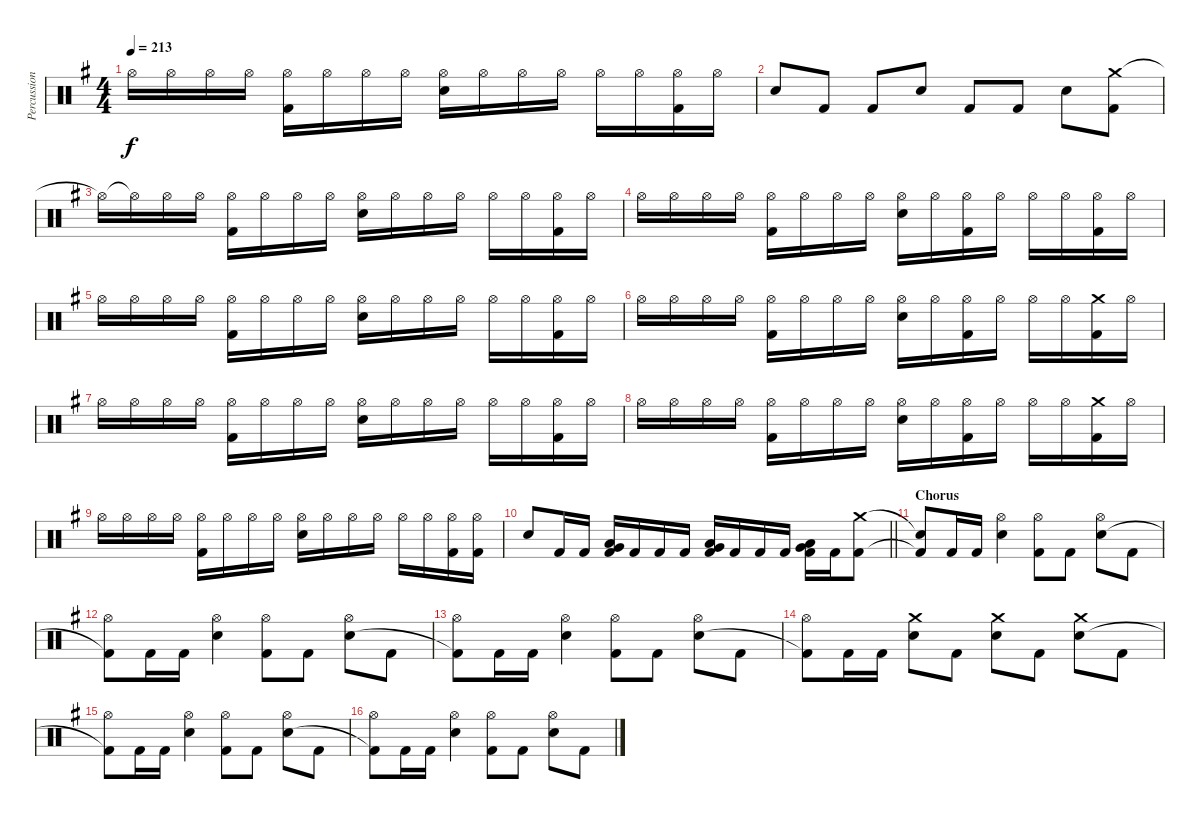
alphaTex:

\track ("Percussion" "Percussion") {instrument percussion}
\staff {score}
\articulation defaults
\ts (4 4)
\tempo 213
\clef neutral
\ks eminor "Hi-Hat (open)".16{dy f} "Hi-Hat (open)".16 "Hi-Hat (open)".16 "Hi-Hat (open)".16
("Hi-Hat (open)" "Kick (hit) 2").16 "Hi-Hat (open)".16 "Hi-Hat (open)".16 "Hi-Hat (open)".16 ("Hi-Hat (open)" "Snare (hit) 2").16 "Hi-Hat (open)".16 "Hi-Hat (open)".16 "Hi-Hat (open)".16 "Hi-Hat (open)".16 "Hi-Hat (open)".16 ("Hi-Hat (open)" "Kick (hit) 2").16 "Hi-Hat (open)".16 |
"Snare (hit) 2".8 "Kick (hit) 2".8 "Kick (hit) 2".8 "Snare (hit) 2".8 "Kick (hit) 2".8 "Kick (hit) 2".8 "Snare (hit) 2".8 ("Crash medium (hit)" "Kick (hit) 2").8 |
"Hi-Hat (open)"{t}.16 "Hi-Hat (open)"{t}.16 "Hi-Hat (open)".16 "Hi-Hat (open)".16 ("Hi-Hat (open)" "Kick (hit) 2").16 "Hi-Hat (open)".16 "Hi-Hat (open)".16 "Hi-Hat (open)".16 ("Hi-Hat (open)" "Snare (hit) 2").16 "Hi-Hat (open)".16 "Hi-Hat (open)".16 "Hi-Hat (open)".16 "Hi-Hat (open)".16 "Hi-Hat (open)".16 ("Hi-Hat (open)" "Kick (hit) 2").16 "Hi-Hat (open)".16 |
"Hi-Hat (open)".16 "Hi-Hat (open)".16 "Hi-Hat (open)".16 "Hi-Hat (open)".16 ("Hi-Hat (open)" "Kick (hit) 2").16 "Hi-Hat (open)".16 "Hi-Hat (open)".16 "Hi-Hat (open)".16 ("Hi-Hat (open)" "Snare (hit) 2").16 "Hi-Hat (open)".16 ("Hi-Hat (open)" "Kick (hit) 2").16 "Hi-Hat (open)".16 "Hi-Hat (open)".16 "Hi-Hat (open)".16 ("Hi-Hat (open)" "Kick (hit) 2").16 "Hi-Hat (open)".16 |
"Hi-Hat (open)".16 "Hi-Hat (open)".16 "Hi-Hat (open)".16 "Hi-Hat (open)".16 ("Hi-Hat (open)" "Kick (hit) 2").16 "Hi-Hat (open)".16 "Hi-Hat (open)".16 "Hi-Hat (open)".16 ("Hi-Hat (open)" "Snare (hit) 2").16 "Hi-Hat (open)".16 "Hi-Hat (open)".16 "Hi-Hat (open)".16 "Hi-Hat (open)".16 "Hi-Hat (open)".16 ("Hi-Hat (open)" "Kick (hit) 2").16 "Hi-Hat (open)".16 |
"Hi-Hat (open)".16 "Hi-Hat (open)".16 "Hi-Hat (open)".16 "Hi-Hat (open)".16 ("Hi-Hat (open)" "Kick (hit) 2").16 "Hi-Hat (open)".16 "Hi-Hat (open)".16 "Hi-Hat (open)".16 ("Hi-Hat (open)" "Snare (hit) 2").16 "Hi-Hat (open)".16 ("Hi-Hat (open)" "Kick (hit) 2").16 "Hi-Hat (open)".16 "Hi-Hat (open)".16 "Hi-Hat (open)".16 ("Crash medium (hit)" "Kick (hit) 2").16 "Hi-Hat (open)".16 |
"Hi-Hat (open)".16 "Hi-Hat (open)".16 "Hi-Hat (open)".16 "Hi-Hat (open)".16 ("Hi-Hat (open)" "Kick (hit) 2").16 "Hi-Hat (open)".16 "Hi-Hat (open)".16 "Hi-Hat (open)".16 ("Hi-Hat (open)" "Snare (hit) 2").16 "Hi-Hat (open)".16 "Hi-Hat (open)".16 "Hi-Hat (open)".16 "Hi-Hat (open)".16 "Hi-Hat (open)".16 ("Hi-Hat (open)" "Kick (hit) 2").16 "Hi-Hat (open)".16 |
"Hi-Hat (open)".16 "Hi-Hat (open)".16 "Hi-Hat (open)".16 "Hi-Hat (open)".16 ("Hi-Hat (open)" "Kick (hit) 2").16 "Hi-Hat (open)".16 "Hi-Hat (open)".16 "Hi-Hat (open)".16 ("Hi-Hat (open)" "Snare (hit) 2").16 "Hi-Hat (open)".16 ("Hi-Hat (open)" "Kick (hit) 2").16 "Hi-Hat (open)".16 "Hi-Hat (open)".16 "Hi-Hat (open)".16 ("Crash medium (hit)" "Kick (hit) 2").16 "Hi-Hat (open)".16 |
"Hi-Hat (open)".16 "Hi-Hat (open)".16 "Hi-Hat (open)".16 "Hi-Hat (open)".16 ("Hi-Hat (open)" "Kick (hit) 2").16 "Hi-Hat (open)".16 "Hi-Hat (open)".16 "Hi-Hat (open)".16 ("Hi-Hat (open)" "Snare (hit) 2").16 "Hi-Hat (open)".16 "Hi-Hat (open)".16 "Hi-Hat (open)".16 "Hi-Hat (open)".16 "Hi-Hat (open)".16 ("Hi-Hat (open)" "Kick (hit) 2").16 ("Hi-Hat (open)" "Kick (hit) 2").16 |
\barLineRight lightlight "Snare (hit) 2".8 "Kick (hit) 2".16 "Kick (hit) 2".16
("Low Floor Tom (hit)" "Very Low Tom (hit)" "Kick (hit) 2").16 "Kick (hit) 2".16 "Kick (hit) 2".16 "Kick (hit) 2".16 ("Low Floor Tom (hit)" "Very Low Tom (hit)" "Kick (hit) 2").16 "Kick (hit) 2".16 "Kick (hit) 2".16 "Kick (hit) 2".16 ("Low Floor Tom (hit)" "Very Low Tom (hit)" "Kick (hit) 2").16 "Kick (hit) 2".16 ("Crash medium (hit)" "Kick (hit) 2").8 |
\section ("" "Chorus")
("Snare (hit)"{t} "Kick (hit) 2"{t}).8 "Kick (hit) 2".16 "Kick (hit) 2".16 ("Hi-Hat (open)" "Snare (hit) 2").4 ("Hi-Hat (open)" "Kick (hit) 2").8 "Kick (hit) 2".8 ("Hi-Hat (open)" "Snare (hit) 2").8 "Kick (hit) 2".8 |
("Hi-Hat (open)" "Kick (hit) 2"{t}).8 "Kick (hit) 2".16 "Kick (hit) 2".16 ("Hi-Hat (open)" "Snare (hit) 2").4 ("Hi-Hat (open)" "Kick (hit) 2").8 "Kick (hit) 2".8 ("Hi-Hat (open)" "Snare (hit) 2").8 "Kick (hit) 2".8 |
("Hi-Hat (open)" "Kick (hit) 2"{t}).8 "Kick (hit) 2".16 "Kick (hit) 2".16 ("Hi-Hat (open)" "Snare (hit) 2").4 ("Hi-Hat (open)" "Kick (hit) 2").8 "Kick (hit) 2".8 ("Hi-Hat (open)" "Snare (hit) 2").8 "Kick (hit) 2".8 |
("Hi-Hat (open)" "Kick (hit) 2"{t}).8 "Kick (hit) 2".16 "Kick (hit) 2".16 ("Crash medium (hit)" "Snare (hit) 2").8 "Kick (hit) 2".8 ("Crash medium (hit)" "Snare (hit) 2").8 "Kick (hit) 2".8 ("Crash medium (hit)" "Snare (hit) 2").8 "Kick (hit) 2".8 |
("Hi-Hat (open)" "Kick (hit) 2"{t}).8 "Kick (hit) 2".16 "Kick (hit) 2".16 ("Hi-Hat (open)" "Snare (hit) 2").4 ("Hi-Hat (open)" "Kick (hit) 2").8 "Kick (hit) 2".8 ("Hi-Hat (open)" "Snare (hit) 2").8 "Kick (hit) 2".8 |
("Hi-Hat (open)" "Kick (hit) 2"{t}).8 "Kick (hit) 2".16 "Kick (hit) 2".16 ("Hi-Hat (open)" "Snare (hit) 2").4 ("Hi-Hat (open)" "Kick (hit) 2").8 "Kick (hit) 2".8 ("Hi-Hat (open)" "Snare (hit) 2").8 "Kick (hit) 2".8
